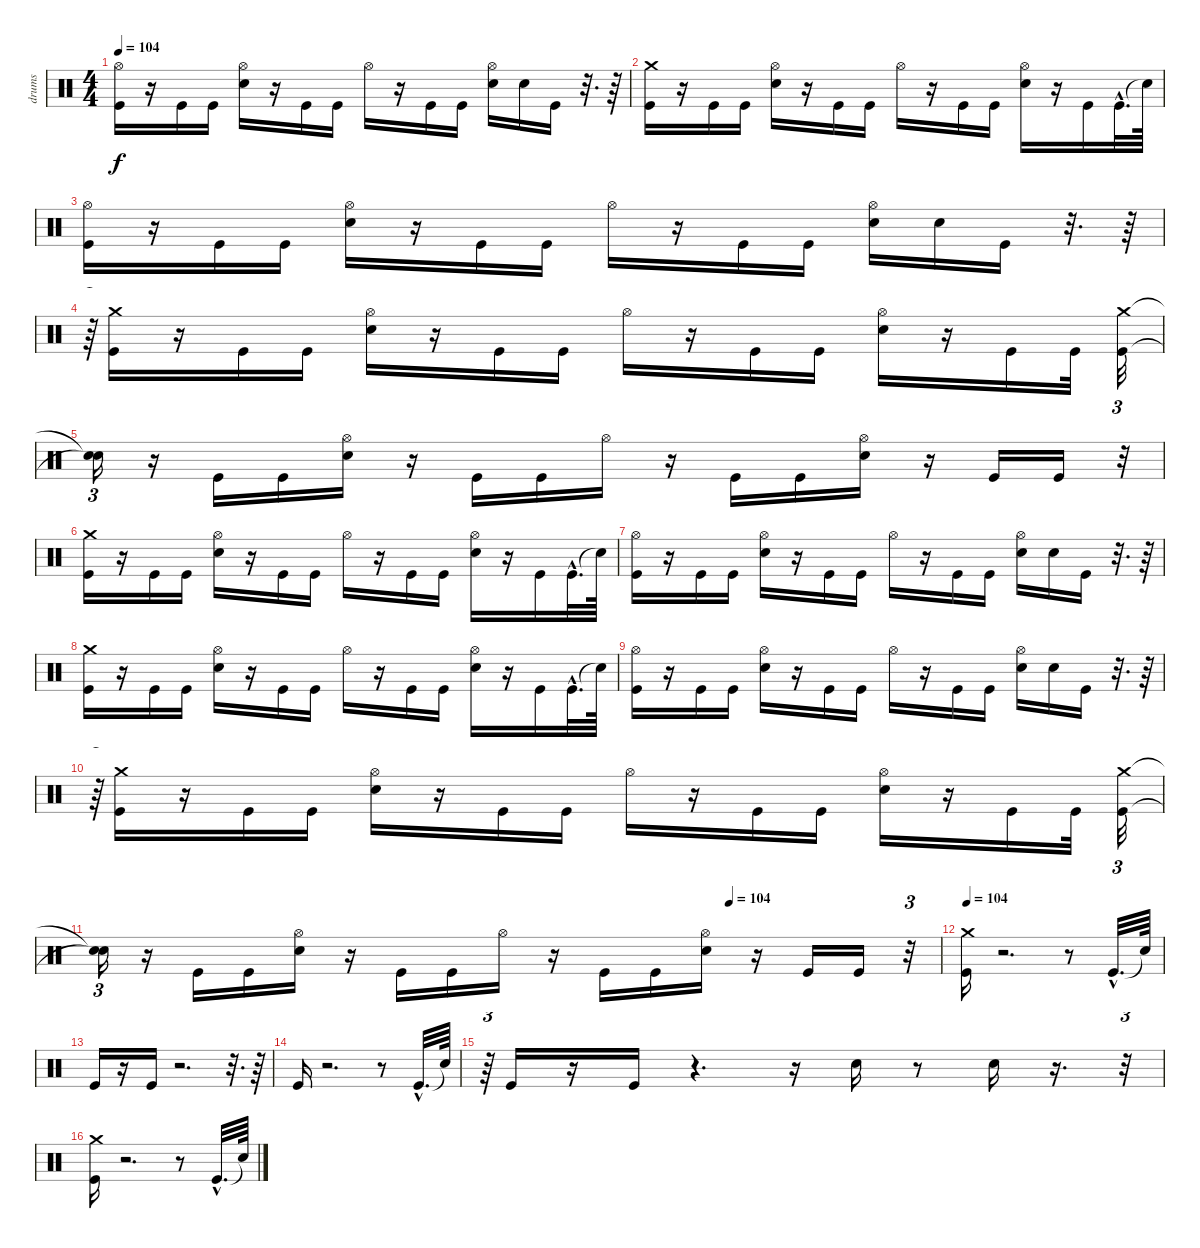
\track ("drums" "drums") {instrument percussion}
\staff {score}
\articulation defaults
\ts (4 4)
\tempo 104
\clef neutral
\ks c
("Hi-Hat (open)" "Kick (hit)").16{dy f} r.16 "Kick (hit)".16 "Kick (hit)".16 ("Hi-Hat (open)" "Electric Snare (hit)").16 r.16 "Kick (hit)".16 "Kick (hit)".16 "Hi-Hat (open)".16 r.16 "Kick (hit)".16 "Kick (hit)".16 ("Hi-Hat (open)" "Electric Snare (hit)").16 "Electric Snare (hit)".16 "Kick (hit)".16 r.32{d} r.64 |
("Crash medium (hit)" "Kick (hit)").16 r.16 "Kick (hit)".16 "Kick (hit)".16 ("Hi-Hat (open)" "Electric Snare (hit)").16 r.16 "Kick (hit)".16 "Kick (hit)".16 "Hi-Hat (open)".16 r.16 "Kick (hit)".16 "Kick (hit)".16 ("Hi-Hat (open)" "Electric Snare (hit)").16 r.16 "Kick (hit)".16 "Kick (hit)"{hac}.32{d} "Snare (hit)"{t}.64 |
("Hi-Hat (open)" "Kick (hit)").16 r.16 "Kick (hit)".16 "Kick (hit)".16 ("Hi-Hat (open)" "Electric Snare (hit)").16 r.16 "Kick (hit)".16 "Kick (hit)".16 "Hi-Hat (open)".16 r.16 "Kick (hit)".16 "Kick (hit)".16 ("Hi-Hat (open)" "Electric Snare (hit)").16 "Electric Snare (hit)".16 "Kick (hit)".16 r.32{d} r.64 |
r.64{tu (3 2)} ("Crash medium (hit)" "Kick (hit)").16 r.16 "Kick (hit)".16 "Kick (hit)".16 ("Hi-Hat (open)" "Electric Snare (hit)").16 r.16 "Kick (hit)".16 "Kick (hit)".16 "Hi-Hat (open)".16 r.16 "Kick (hit)".16 "Kick (hit)".16 ("Hi-Hat (open)" "Electric Snare (hit)").16 r.16 "Kick (hit)".16 "Kick (hit)".32 ("Crash medium (hit)" "Kick (hit)").32{tu (3 2)} |
("Snare (hit)"{t} "Snare (hit)"{t}).16{tu (3 2)} r.16 "Kick (hit)".16 "Kick (hit)".16 ("Hi-Hat (open)" "Electric Snare (hit)").16 r.16 "Kick (hit)".16 "Kick (hit)".16 "Hi-Hat (open)".16 r.16 "Kick (hit)".16 "Kick (hit)".16 ("Hi-Hat (open)" "Electric Snare (hit)").16 r.16 "Kick (hit)".16 "Kick (hit)".16 r.32{tu (3 2)} |
("Crash medium (hit)" "Kick (hit)").16 r.16 "Kick (hit)".16 "Kick (hit)".16 ("Hi-Hat (open)" "Electric Snare (hit)").16 r.16 "Kick (hit)".16 "Kick (hit)".16 "Hi-Hat (open)".16 r.16 "Kick (hit)".16 "Kick (hit)".16 ("Hi-Hat (open)" "Electric Snare (hit)").16 r.16 "Kick (hit)".16 "Kick (hit)"{hac}.32{d} "Snare (hit)"{t}.64 |
("Hi-Hat (open)" "Kick (hit)").16 r.16 "Kick (hit)".16 "Kick (hit)".16 ("Hi-Hat (open)" "Electric Snare (hit)").16 r.16 "Kick (hit)".16 "Kick (hit)".16 "Hi-Hat (open)".16 r.16 "Kick (hit)".16 "Kick (hit)".16 ("Hi-Hat (open)" "Electric Snare (hit)").16 "Electric Snare (hit)".16 "Kick (hit)".16 r.32{d} r.64 |
("Crash medium (hit)" "Kick (hit)").16 r.16 "Kick (hit)".16 "Kick (hit)".16 ("Hi-Hat (open)" "Electric Snare (hit)").16 r.16 "Kick (hit)".16 "Kick (hit)".16 "Hi-Hat (open)".16 r.16 "Kick (hit)".16 "Kick (hit)".16 ("Hi-Hat (open)" "Electric Snare (hit)").16 r.16 "Kick (hit)".16 "Kick (hit)"{hac}.32{d} "Snare (hit)"{t}.64 |
("Hi-Hat (open)" "Kick (hit)").16 r.16 "Kick (hit)".16 "Kick (hit)".16 ("Hi-Hat (open)" "Electric Snare (hit)").16 r.16 "Kick (hit)".16 "Kick (hit)".16 "Hi-Hat (open)".16 r.16 "Kick (hit)".16 "Kick (hit)".16 ("Hi-Hat (open)" "Electric Snare (hit)").16 "Electric Snare (hit)".16 "Kick (hit)".16 r.32{d} r.64 |
r.64{tu (3 2)} ("Crash medium (hit)" "Kick (hit)").16 r.16 "Kick (hit)".16 "Kick (hit)".16 ("Hi-Hat (open)" "Electric Snare (hit)").16 r.16 "Kick (hit)".16 "Kick (hit)".16 "Hi-Hat (open)".16 r.16 "Kick (hit)".16 "Kick (hit)".16 ("Hi-Hat (open)" "Electric Snare (hit)").16 r.16 "Kick (hit)".16 "Kick (hit)".32 ("Crash medium (hit)" "Kick (hit)").32{tu (3 2)} |
\tempo (104 0.75)
("Snare (hit)"{t} "Snare (hit)"{t}).16{tu (3 2)} r.16 "Kick (hit)".16 "Kick (hit)".16 ("Hi-Hat (open)" "Electric Snare (hit)").16 r.16 "Kick (hit)".16 "Kick (hit)".16 "Hi-Hat (open)".16 r.16 "Kick (hit)".16 "Kick (hit)".16 ("Hi-Hat (open)" "Electric Snare (hit)").16 r.16 "Kick (hit)".16 "Kick (hit)".16 r.32{tu (3 2)} |
\tempo 104
("Crash medium (hit)" "Kick (hit)").16 r.2{d} r.8 "Kick (hit)"{hac}.32{d} "Snare (hit)"{t}.64 |
"Kick (hit)".16 r.16 "Kick (hit)".16 r.2{d} r.32{d} r.64 |
"Kick (hit)".16 r.2{d} r.8 "Kick (hit)"{hac}.32{d} "Snare (hit)"{t}.64 |
r.64{tu (3 2)} "Kick (hit)".16 r.16 "Kick (hit)".16 r.4{d} r.16 "Electric Snare (hit)".16 r.8 "Electric Snare (hit)".16 r.16{d} r.32{tu (3 2)} |
("Crash medium (hit)" "Kick (hit)").16 r.2{d} r.8 "Kick (hit)"{hac}.32{d} "Snare (hit)"{t}.64
